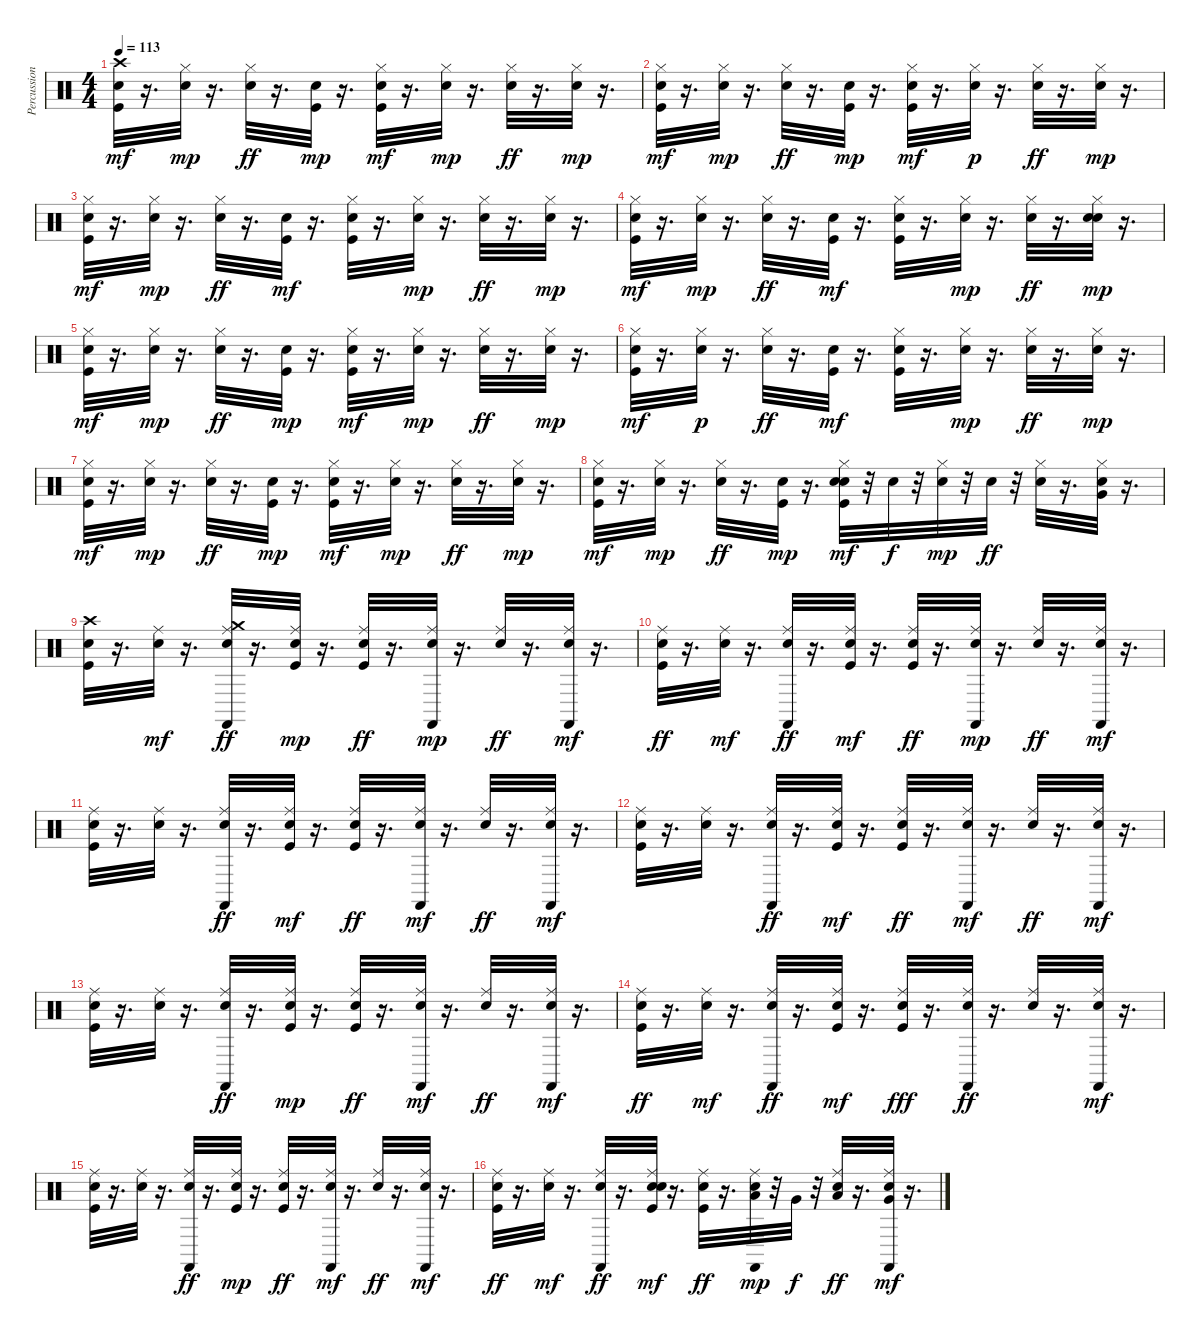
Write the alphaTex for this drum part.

\track ("Percussions" "Percussion") {instrument percussion}
\staff {score}
\articulation defaults
\ts (4 4)
\tempo 113
\clef neutral
\ks c
("Kick (hit)" "Snare (hit) 2" "Crash high (hit)").32{dy mf} r.16{d} ("Snare (hit) 2" "Hi-Hat (closed)").32{dy mp} r.16{d} ("Hand Clap (hit)" "Hi-Hat (closed)").32{dy ff} r.16{d} ("Kick (hit)" "Snare (hit) 2").32{dy mp} r.16{d} ("Kick (hit)" "Snare (hit) 2" "Hi-Hat (closed)").32{dy mf} r.16{d} ("Snare (hit) 2" "Hi-Hat (closed)").32{dy mp} r.16{d} ("Hand Clap (hit)" "Hi-Hat (closed)").32{dy ff} r.16{d} ("Snare (hit) 2" "Hi-Hat (closed)").32{dy mp} r.16{d} |
("Kick (hit)" "Snare (hit) 2" "Hi-Hat (closed)").32{dy mf} r.16{d} ("Snare (hit) 2" "Hi-Hat (closed)").32{dy mp} r.16{d} ("Hand Clap (hit)" "Hi-Hat (closed)").32{dy ff} r.16{d} ("Kick (hit)" "Snare (hit) 2").32{dy mp} r.16{d} ("Kick (hit)" "Snare (hit) 2" "Hi-Hat (closed)").32{dy mf} r.16{d} ("Snare (hit) 2" "Hi-Hat (closed)").32{dy p} r.16{d} ("Hand Clap (hit)" "Hi-Hat (closed)").32{dy ff} r.16{d} ("Snare (hit) 2" "Hi-Hat (closed)").32{dy mp} r.16{d} |
("Kick (hit)" "Snare (hit) 2" "Hi-Hat (closed)").32{dy mf} r.16{d} ("Snare (hit) 2" "Hi-Hat (closed)").32{dy mp} r.16{d} ("Hand Clap (hit)" "Hi-Hat (closed)").32{dy ff} r.16{d} ("Kick (hit)" "Snare (hit) 2").32{dy mf} r.16{d} ("Kick (hit)" "Snare (hit) 2" "Hi-Hat (closed)").32 r.16{d} ("Snare (hit) 2" "Hi-Hat (closed)").32{dy mp} r.16{d} ("Hand Clap (hit)" "Hi-Hat (closed)").32{dy ff} r.16{d} ("Snare (hit) 2" "Hi-Hat (closed)").32{dy mp} r.16{d} |
("Kick (hit)" "Snare (hit) 2" "Hi-Hat (closed)").32{dy mf} r.16{d} ("Snare (hit) 2" "Hi-Hat (closed)").32{dy mp} r.16{d} ("Hand Clap (hit)" "Hi-Hat (closed)").32{dy ff} r.16{d} ("Kick (hit)" "Snare (hit) 2").32{dy mf} r.16{d} ("Kick (hit)" "Snare (hit) 2" "Hi-Hat (closed)").32 r.16{d} ("Snare (hit) 2" "Hi-Hat (closed)").32{dy mp} r.16{d} ("Hand Clap (hit)" "Hi-Hat (closed)").32{dy ff} r.16{d} ("Snare (hit) 2" "Hand Clap (hit)" "Hi-Hat (closed)").32{dy mp} r.16{d} |
("Kick (hit)" "Snare (hit) 2" "Hi-Hat (closed)").32{dy mf} r.16{d} ("Snare (hit) 2" "Hi-Hat (closed)").32{dy mp} r.16{d} ("Hand Clap (hit)" "Hi-Hat (closed)").32{dy ff} r.16{d} ("Kick (hit)" "Snare (hit) 2").32{dy mp} r.16{d} ("Kick (hit)" "Snare (hit) 2" "Hi-Hat (closed)").32{dy mf} r.16{d} ("Snare (hit) 2" "Hi-Hat (closed)").32{dy mp} r.16{d} ("Hand Clap (hit)" "Hi-Hat (closed)").32{dy ff} r.16{d} ("Snare (hit) 2" "Hi-Hat (closed)").32{dy mp} r.16{d} |
("Kick (hit)" "Snare (hit) 2" "Hi-Hat (closed)").32{dy mf} r.16{d} ("Snare (hit) 2" "Hi-Hat (closed)").32{dy p} r.16{d} ("Hand Clap (hit)" "Hi-Hat (closed)").32{dy ff} r.16{d} ("Kick (hit)" "Snare (hit) 2").32{dy mf} r.16{d} ("Kick (hit)" "Snare (hit) 2" "Hi-Hat (closed)").32 r.16{d} ("Snare (hit) 2" "Hi-Hat (closed)").32{dy mp} r.16{d} ("Hand Clap (hit)" "Hi-Hat (closed)").32{dy ff} r.16{d} ("Snare (hit) 2" "Hi-Hat (closed)").32{dy mp} r.16{d} |
("Kick (hit)" "Snare (hit) 2" "Hi-Hat (closed)").32{dy mf} r.16{d} ("Snare (hit) 2" "Hi-Hat (closed)").32{dy mp} r.16{d} ("Hand Clap (hit)" "Hi-Hat (closed)").32{dy ff} r.16{d} ("Kick (hit)" "Snare (hit) 2").32{dy mp} r.16{d} ("Kick (hit)" "Snare (hit) 2" "Hi-Hat (closed)").32{dy mf} r.16{d} ("Snare (hit) 2" "Hi-Hat (closed)").32{dy mp} r.16{d} ("Hand Clap (hit)" "Hi-Hat (closed)").32{dy ff} r.16{d} ("Snare (hit) 2" "Hi-Hat (closed)").32{dy mp} r.16{d} |
("Kick (hit)" "Snare (hit) 2" "Hi-Hat (closed)").32{dy mf} r.16{d} ("Snare (hit) 2" "Hi-Hat (closed)").32{dy mp} r.16{d} ("Hand Clap (hit)" "Hi-Hat (closed)").32{dy ff} r.16{d} ("Kick (hit)" "Snare (hit) 2").32{dy mp} r.16{d} ("Kick (hit)" "Snare (hit) 2" "Hand Clap (hit)" "Hi-Hat (closed)").32{dy mf} r.32 "Snare (hit) 2".32{dy f} r.32 ("Snare (hit) 2" "Hi-Hat (closed)").32{dy mp} r.32 "Snare (hit) 2".32{dy ff} r.32 ("Hand Clap (hit)" "Hi-Hat (closed)").32 r.16{d} ("Snare (hit) 2" "Hi-Hat (closed)" "Very Low Tom (hit)").32 r.16{d} |
("Kick (hit)" "Snare (hit) 2" "Crash high (hit)").32 r.16{d} ("Snare (hit) 2" "Ride (middle)").32{dy mf} r.16{d} ("Hand Clap (hit)" "Ride (middle)" "Crash medium (hit)" "Castanets (hit)").32{dy ff} r.16{d} ("Kick (hit)" "Snare (hit) 2" "Ride (middle)").32{dy mp} r.16{d} ("Kick (hit)" "Snare (hit) 2" "Ride (middle)").32{dy ff} r.16{d} ("Snare (hit) 2" "Ride (middle)" "Castanets (hit)").32{dy mp} r.16{d} ("Hand Clap (hit)" "Ride (middle)").32{dy ff} r.16{d} ("Snare (hit) 2" "Ride (middle)" "Castanets (hit)").32{dy mf} r.16{d} |
("Kick (hit)" "Snare (hit) 2" "Ride (middle)").32{dy ff} r.16{d} ("Snare (hit) 2" "Ride (middle)").32{dy mf} r.16{d} ("Hand Clap (hit)" "Ride (middle)" "Castanets (hit)").32{dy ff} r.16{d} ("Kick (hit)" "Snare (hit) 2" "Ride (middle)").32{dy mf} r.16{d} ("Kick (hit)" "Snare (hit) 2" "Ride (middle)").32{dy ff} r.16{d} ("Snare (hit) 2" "Ride (middle)" "Castanets (hit)").32{dy mp} r.16{d} ("Hand Clap (hit)" "Ride (middle)").32{dy ff} r.16{d} ("Snare (hit) 2" "Ride (middle)" "Castanets (hit)").32{dy mf} r.16{d} |
("Kick (hit)" "Snare (hit) 2" "Ride (middle)").32 r.16{d} ("Snare (hit) 2" "Ride (middle)").32 r.16{d} ("Hand Clap (hit)" "Ride (middle)" "Castanets (hit)").32{dy ff} r.16{d} ("Kick (hit)" "Snare (hit) 2" "Ride (middle)").32{dy mf} r.16{d} ("Kick (hit)" "Snare (hit) 2" "Ride (middle)").32{dy ff} r.16{d} ("Snare (hit) 2" "Ride (middle)" "Castanets (hit)").32{dy mf} r.16{d} ("Hand Clap (hit)" "Ride (middle)").32{dy ff} r.16{d} ("Snare (hit) 2" "Ride (middle)" "Castanets (hit)").32{dy mf} r.16{d} |
("Kick (hit)" "Snare (hit) 2" "Ride (middle)").32 r.16{d} ("Snare (hit) 2" "Ride (middle)").32 r.16{d} ("Hand Clap (hit)" "Ride (middle)" "Castanets (hit)").32{dy ff} r.16{d} ("Kick (hit)" "Snare (hit) 2" "Ride (middle)").32{dy mf} r.16{d} ("Kick (hit)" "Snare (hit) 2" "Ride (middle)").32{dy ff} r.16{d} ("Snare (hit) 2" "Ride (middle)" "Castanets (hit)").32{dy mf} r.16{d} ("Hand Clap (hit)" "Ride (middle)").32{dy ff} r.16{d} ("Snare (hit) 2" "Ride (middle)" "Castanets (hit)").32{dy mf} r.16{d} |
("Kick (hit)" "Snare (hit) 2" "Ride (middle)").32 r.16{d} ("Snare (hit) 2" "Ride (middle)").32 r.16{d} ("Hand Clap (hit)" "Ride (middle)" "Castanets (hit)").32{dy ff} r.16{d} ("Kick (hit)" "Snare (hit) 2" "Ride (middle)").32{dy mp} r.16{d} ("Kick (hit)" "Snare (hit) 2" "Ride (middle)").32{dy ff} r.16{d} ("Snare (hit) 2" "Ride (middle)" "Castanets (hit)").32{dy mf} r.16{d} ("Hand Clap (hit)" "Ride (middle)").32{dy ff} r.16{d} ("Snare (hit) 2" "Ride (middle)" "Castanets (hit)").32{dy mf} r.16{d} |
("Kick (hit)" "Snare (hit) 2" "Ride (middle)").32{dy ff} r.16{d} ("Snare (hit) 2" "Ride (middle)").32{dy mf} r.16{d} ("Hand Clap (hit)" "Ride (middle)" "Castanets (hit)").32{dy ff} r.16{d} ("Kick (hit)" "Snare (hit) 2" "Ride (middle)").32{dy mf} r.16{d} ("Kick (hit)" "Snare (hit) 2" "Ride (middle)").32{dy fff} r.16{d} ("Snare (hit) 2" "Ride (middle)" "Castanets (hit)").32{dy ff} r.16{d} ("Hand Clap (hit)" "Ride (middle)").32 r.16{d} ("Snare (hit) 2" "Ride (middle)" "Castanets (hit)").32{dy mf} r.16{d} |
("Kick (hit)" "Snare (hit) 2" "Ride (middle)").32 r.16{d} ("Snare (hit) 2" "Ride (middle)").32 r.16{d} ("Hand Clap (hit)" "Ride (middle)" "Castanets (hit)").32{dy ff} r.16{d} ("Kick (hit)" "Snare (hit) 2" "Ride (middle)").32{dy mp} r.16{d} ("Kick (hit)" "Snare (hit) 2" "Ride (middle)").32{dy ff} r.16{d} ("Snare (hit) 2" "Ride (middle)" "Castanets (hit)").32{dy mf} r.16{d} ("Hand Clap (hit)" "Ride (middle)").32{dy ff} r.16{d} ("Snare (hit) 2" "Ride (middle)" "Castanets (hit)").32{dy mf} r.16{d} |
("Kick (hit)" "Snare (hit) 2" "Ride (middle)").32{dy ff} r.16{d} ("Snare (hit) 2" "Ride (middle)").32{dy mf} r.16{d} ("Hand Clap (hit)" "Ride (middle)" "Castanets (hit)").32{dy ff} r.16{d} ("Kick (hit)" "Snare (hit) 2" "Hand Clap (hit)" "Ride (middle)").32{dy mf} r.16{d} ("Kick (hit)" "Snare (hit) 2" "Ride (middle)").32{dy ff} r.16{d} ("Snare (hit) 2" "Low Tom (hit)" "Ride (middle)" "Castanets (hit)").32{dy mp} r.32 "Very Low Tom (hit)".32{dy f} r.32 ("Hand Clap (hit)" "Low Tom (hit)" "Ride (middle)").32{dy ff} r.16{d} ("Snare (hit) 2" "Very Low Tom (hit)" "Ride (middle)" "Castanets (hit)").32{dy mf} r.16{d}
